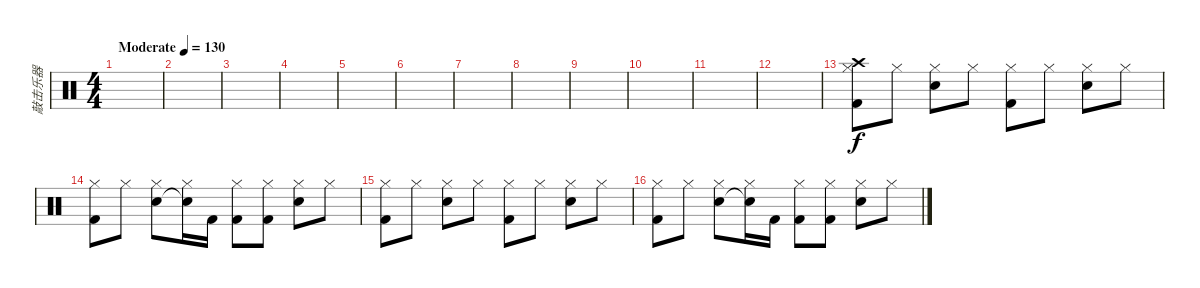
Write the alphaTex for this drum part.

\track ("敲击乐器" "敲击乐器") {instrument percussion}
\staff {score}
\articulation defaults
\ts (4 4)
\tempo (130 "Moderate")
\clef neutral
\ks c
|
|
|
|
|
|
|
|
|
|
|
|
("Crash high (hit)" "Hi-Hat (closed)" "Kick (hit) 2").8 "Hi-Hat (closed)".8 ("Hi-Hat (closed)" "Electric Snare (hit)").8 "Hi-Hat (closed)".8 ("Hi-Hat (closed)" "Kick (hit) 2").8 "Hi-Hat (closed)".8 ("Hi-Hat (closed)" "Electric Snare (hit)").8 "Hi-Hat (closed)".8 |
("Hi-Hat (closed)" "Kick (hit) 2").8 "Hi-Hat (closed)".8 ("Hi-Hat (closed)" "Electric Snare (hit)").8 ("Hi-Hat (closed)" "Electric Snare (hit)"{t}).16 "Kick (hit) 2".16 ("Hi-Hat (closed)" "Kick (hit) 2").8 ("Hi-Hat (closed)" "Kick (hit) 2").8 ("Hi-Hat (closed)" "Electric Snare (hit)").8 "Hi-Hat (closed)".8 |
("Hi-Hat (closed)" "Kick (hit) 2").8 "Hi-Hat (closed)".8 ("Hi-Hat (closed)" "Electric Snare (hit)").8 "Hi-Hat (closed)".8 ("Hi-Hat (closed)" "Kick (hit) 2").8 "Hi-Hat (closed)".8 ("Hi-Hat (closed)" "Electric Snare (hit)").8 "Hi-Hat (closed)".8 |
("Hi-Hat (closed)" "Kick (hit) 2").8 "Hi-Hat (closed)".8 ("Hi-Hat (closed)" "Electric Snare (hit)").8 ("Hi-Hat (closed)" "Electric Snare (hit)"{t}).16 "Kick (hit) 2".16 ("Hi-Hat (closed)" "Kick (hit) 2").8 ("Hi-Hat (closed)" "Kick (hit) 2").8 ("Hi-Hat (closed)" "Electric Snare (hit)").8 "Hi-Hat (closed)".8
